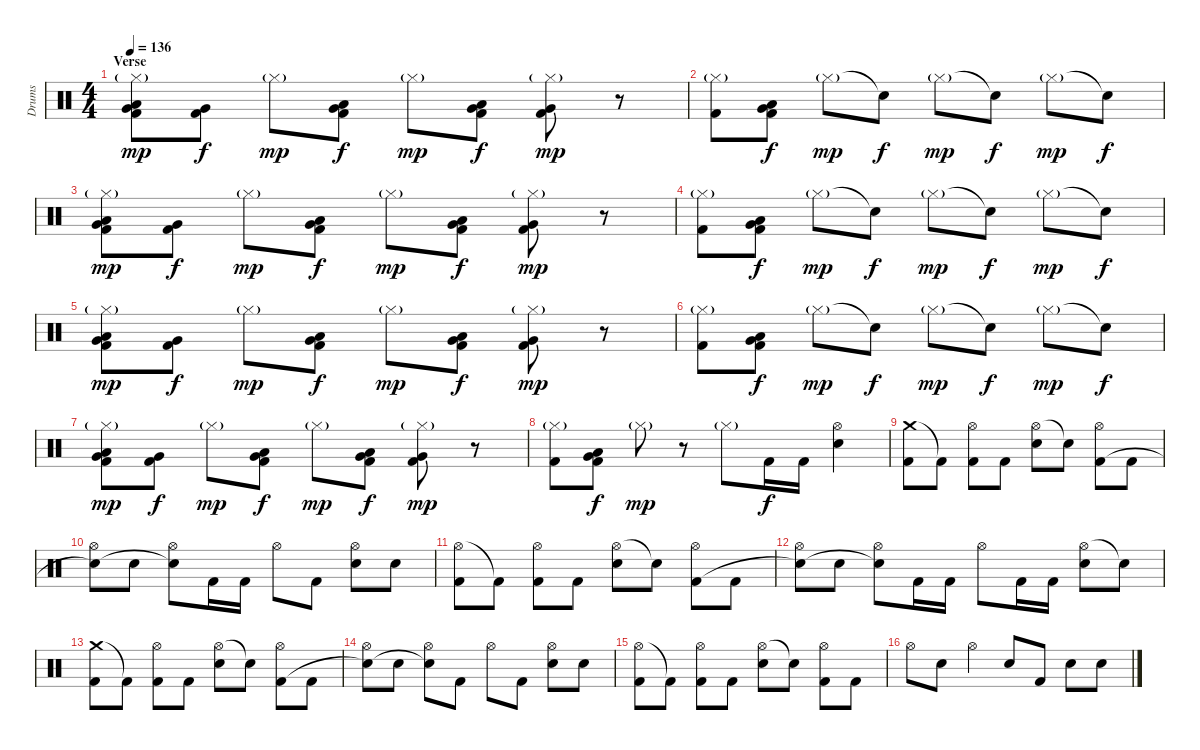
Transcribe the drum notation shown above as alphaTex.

\track ("Drums" "Drums") {instrument percussion}
\staff {score}
\articulation defaults
\ts (4 4)
\section ("" "Verse")
\tempo 136
\clef neutral
\ks c
("Kick (hit) 2" "Low Tom (hit)" "Very Low Tom (hit)" "Hi-Hat (closed)"{g}).8{dy mp} ("Kick (hit) 2" "Very Low Tom (hit)").8{dy f} "Hi-Hat (closed)"{g}.8{dy mp} ("Kick (hit) 2" "Low Tom (hit)" "Very Low Tom (hit)").8{dy f} "Hi-Hat (closed)"{g}.8{dy mp} ("Kick (hit) 2" "Low Tom (hit)" "Very Low Tom (hit)").8{dy f} ("Kick (hit) 2" "Very Low Tom (hit)" "Hi-Hat (closed)"{g}).8{dy mp} r.8 |
("Kick (hit) 2" "Hi-Hat (closed)"{g}).8 ("Kick (hit) 2" "Low Tom (hit)" "Very Low Tom (hit)").8{dy f} "Hi-Hat (closed)"{g}.8{dy mp} "Snare (hit)"{t}.8{dy f} "Hi-Hat (closed)"{g}.8{dy mp} "Snare (hit)"{t}.8{dy f} "Hi-Hat (closed)"{g}.8{dy mp} "Snare (hit)"{t}.8{dy f} |
("Kick (hit) 2" "Low Tom (hit)" "Very Low Tom (hit)" "Hi-Hat (closed)"{g}).8{dy mp} ("Kick (hit) 2" "Very Low Tom (hit)").8{dy f} "Hi-Hat (closed)"{g}.8{dy mp} ("Kick (hit) 2" "Low Tom (hit)" "Very Low Tom (hit)").8{dy f} "Hi-Hat (closed)"{g}.8{dy mp} ("Kick (hit) 2" "Low Tom (hit)" "Very Low Tom (hit)").8{dy f} ("Kick (hit) 2" "Very Low Tom (hit)" "Hi-Hat (closed)"{g}).8{dy mp} r.8 |
("Kick (hit) 2" "Hi-Hat (closed)"{g}).8 ("Kick (hit) 2" "Low Tom (hit)" "Very Low Tom (hit)").8{dy f} "Hi-Hat (closed)"{g}.8{dy mp} "Snare (hit)"{t}.8{dy f} "Hi-Hat (closed)"{g}.8{dy mp} "Snare (hit)"{t}.8{dy f} "Hi-Hat (closed)"{g}.8{dy mp} "Snare (hit)"{t}.8{dy f} |
("Kick (hit) 2" "Low Tom (hit)" "Very Low Tom (hit)" "Hi-Hat (closed)"{g}).8{dy mp} ("Kick (hit) 2" "Very Low Tom (hit)").8{dy f} "Hi-Hat (closed)"{g}.8{dy mp} ("Kick (hit) 2" "Low Tom (hit)" "Very Low Tom (hit)").8{dy f} "Hi-Hat (closed)"{g}.8{dy mp} ("Kick (hit) 2" "Low Tom (hit)" "Very Low Tom (hit)").8{dy f} ("Kick (hit) 2" "Very Low Tom (hit)" "Hi-Hat (closed)"{g}).8{dy mp} r.8 |
("Kick (hit) 2" "Hi-Hat (closed)"{g}).8 ("Kick (hit) 2" "Low Tom (hit)" "Very Low Tom (hit)").8{dy f} "Hi-Hat (closed)"{g}.8{dy mp} "Snare (hit)"{t}.8{dy f} "Hi-Hat (closed)"{g}.8{dy mp} "Snare (hit)"{t}.8{dy f} "Hi-Hat (closed)"{g}.8{dy mp} "Snare (hit)"{t}.8{dy f} |
("Kick (hit) 2" "Low Tom (hit)" "Very Low Tom (hit)" "Hi-Hat (closed)"{g}).8{dy mp} ("Kick (hit) 2" "Very Low Tom (hit)").8{dy f} "Hi-Hat (closed)"{g}.8{dy mp} ("Kick (hit) 2" "Low Tom (hit)" "Very Low Tom (hit)").8{dy f} "Hi-Hat (closed)"{g}.8{dy mp} ("Kick (hit) 2" "Low Tom (hit)" "Very Low Tom (hit)").8{dy f} ("Kick (hit) 2" "Very Low Tom (hit)" "Hi-Hat (closed)"{g}).8{dy mp} r.8 |
("Kick (hit) 2" "Hi-Hat (closed)"{g}).8 ("Kick (hit) 2" "Low Tom (hit)" "Very Low Tom (hit)").8{dy f} "Hi-Hat (closed)"{g}.8{dy mp} r.8 "Hi-Hat (closed)"{g}.8 "Kick (hit) 2".16{dy f} "Kick (hit) 2".16 ("Electric Snare (hit)" "Hi-Hat (open)").4 |
("Crash medium (hit)" "Kick (hit) 2").8 "Kick (hit) 2"{t}.8 ("Hi-Hat (open)" "Kick (hit) 2").8 "Kick (hit) 2".8 ("Hi-Hat (open)" "Electric Snare (hit)").8 "Snare (hit)"{t}.8 ("Hi-Hat (open)" "Kick (hit) 2").8 "Kick (hit) 2".8 |
("Hi-Hat (open)" "Snare (hit)"{t}).8 "Electric Snare (hit)".8 ("Hi-Hat (open)" "Snare (hit)"{t}).8 "Kick (hit) 2".16 "Kick (hit) 2".16 "Hi-Hat (open)".8 "Kick (hit) 2".8 ("Hi-Hat (open)" "Electric Snare (hit)").8 "Electric Snare (hit)".8 |
("Hi-Hat (open)" "Kick (hit) 2").8 "Kick (hit) 2"{t}.8 ("Hi-Hat (open)" "Kick (hit) 2").8 "Kick (hit) 2".8 ("Hi-Hat (open)" "Electric Snare (hit)").8 "Snare (hit)"{t}.8 ("Hi-Hat (open)" "Kick (hit) 2").8 "Kick (hit) 2".8 |
("Hi-Hat (open)" "Snare (hit)"{t}).8 "Electric Snare (hit)".8 ("Hi-Hat (open)" "Snare (hit)"{t}).8 "Kick (hit) 2".16 "Kick (hit) 2".16 "Hi-Hat (open)".8 "Kick (hit) 2".16 "Kick (hit) 2".16 ("Hi-Hat (open)" "Electric Snare (hit)").8 "Electric Snare (hit)"{t}.8 |
("Crash medium (hit)" "Kick (hit) 2").8 "Kick (hit) 2"{t}.8 ("Hi-Hat (open)" "Kick (hit) 2").8 "Kick (hit) 2".8 ("Hi-Hat (open)" "Electric Snare (hit)").8 "Snare (hit)"{t}.8 ("Hi-Hat (open)" "Kick (hit) 2").8 "Kick (hit) 2".8 |
("Hi-Hat (open)" "Snare (hit)"{t}).8 "Electric Snare (hit)".8 ("Hi-Hat (open)" "Snare (hit)"{t}).8 "Kick (hit) 2".8 "Hi-Hat (open)".8 "Kick (hit) 2".8 ("Hi-Hat (open)" "Electric Snare (hit)").8 "Electric Snare (hit)".8 |
("Hi-Hat (open)" "Kick (hit) 2").8 "Kick (hit) 2"{t}.8 ("Hi-Hat (open)" "Kick (hit) 2").8 "Kick (hit) 2".8 ("Hi-Hat (open)" "Electric Snare (hit)").8 "Snare (hit)"{t}.8 ("Hi-Hat (open)" "Kick (hit) 2").8 "Kick (hit) 2".8 |
"Hi-Hat (open)".8 "Electric Snare (hit)".8 "Hi-Hat (open)".4 "Electric Snare (hit)".8 "Kick (hit) 2".8 "Electric Snare (hit)".8 "Electric Snare (hit)".8
